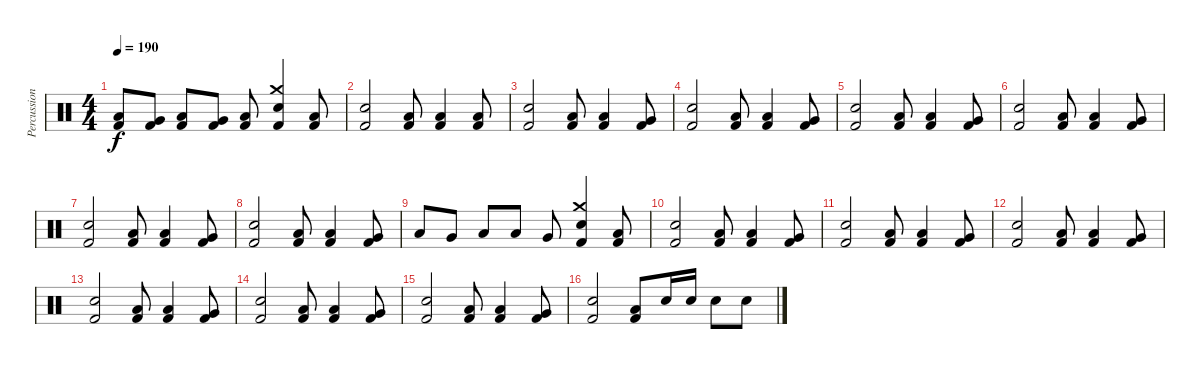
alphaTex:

\track ("Percussion" "Percussion") {instrument percussion}
\staff {score}
\articulation defaults
\ts (4 4)
\tempo 190
\clef neutral
\ks c
("Low Floor Tom (hit)" "Kick (hit) 2").8{dy f} ("Very Low Tom (hit)" "Kick (hit) 2").8 ("Low Floor Tom (hit)" "Kick (hit) 2").8 ("Very Low Tom (hit)" "Kick (hit) 2").8 ("Low Floor Tom (hit)" "Kick (hit) 2").8 ("Crash medium (hit)" "Snare (hit) 2" "Kick (hit) 2").4 ("Low Tom (hit)" "Kick (hit) 2").8 |
("Snare (hit) 2" "Kick (hit) 2").2 ("Low Floor Tom (hit)" "Kick (hit) 2").8 ("Low Floor Tom (hit)" "Kick (hit) 2").4 ("Low Floor Tom (hit)" "Kick (hit) 2").8 |
("Snare (hit) 2" "Kick (hit) 2").2 ("Low Floor Tom (hit)" "Kick (hit) 2").8 ("Low Floor Tom (hit)" "Kick (hit) 2").4 ("Very Low Tom (hit)" "Kick (hit) 2").8 |
("Snare (hit) 2" "Kick (hit) 2").2 ("Low Floor Tom (hit)" "Kick (hit) 2").8 ("Low Floor Tom (hit)" "Kick (hit) 2").4 ("Very Low Tom (hit)" "Kick (hit) 2").8 |
("Snare (hit) 2" "Kick (hit) 2").2 ("Low Floor Tom (hit)" "Kick (hit) 2").8 ("Low Floor Tom (hit)" "Kick (hit) 2").4 ("Very Low Tom (hit)" "Kick (hit) 2").8 |
("Snare (hit) 2" "Kick (hit) 2").2 ("Low Floor Tom (hit)" "Kick (hit) 2").8 ("Low Floor Tom (hit)" "Kick (hit) 2").4 ("Very Low Tom (hit)" "Kick (hit) 2").8 |
("Snare (hit) 2" "Kick (hit) 2").2 ("Low Floor Tom (hit)" "Kick (hit) 2").8 ("Low Floor Tom (hit)" "Kick (hit) 2").4 ("Very Low Tom (hit)" "Kick (hit) 2").8 |
("Snare (hit) 2" "Kick (hit) 2").2 ("Low Floor Tom (hit)" "Kick (hit) 2").8 ("Low Floor Tom (hit)" "Kick (hit) 2").4 ("Very Low Tom (hit)" "Kick (hit) 2").8 |
"Low Tom (hit)".8 "Very Low Tom (hit)".8 "Low Tom (hit)".8 "Low Floor Tom (hit)".8 "Very Low Tom (hit)".8 ("Crash medium (hit)" "Snare (hit) 2" "Kick (hit) 2").4 ("Low Floor Tom (hit)" "Kick (hit) 2").8 |
("Snare (hit) 2" "Kick (hit) 2").2 ("Low Floor Tom (hit)" "Kick (hit) 2").8 ("Low Floor Tom (hit)" "Kick (hit) 2").4 ("Very Low Tom (hit)" "Kick (hit) 2").8 |
("Snare (hit) 2" "Kick (hit) 2").2 ("Low Floor Tom (hit)" "Kick (hit) 2").8 ("Low Floor Tom (hit)" "Kick (hit) 2").4 ("Very Low Tom (hit)" "Kick (hit) 2").8 |
("Snare (hit) 2" "Kick (hit) 2").2 ("Low Floor Tom (hit)" "Kick (hit) 2").8 ("Low Floor Tom (hit)" "Kick (hit) 2").4 ("Very Low Tom (hit)" "Kick (hit) 2").8 |
("Snare (hit) 2" "Kick (hit) 2").2 ("Low Floor Tom (hit)" "Kick (hit) 2").8 ("Low Floor Tom (hit)" "Kick (hit) 2").4 ("Very Low Tom (hit)" "Kick (hit) 2").8 |
("Snare (hit) 2" "Kick (hit) 2").2 ("Low Floor Tom (hit)" "Kick (hit) 2").8 ("Low Floor Tom (hit)" "Kick (hit) 2").4 ("Very Low Tom (hit)" "Kick (hit) 2").8 |
("Snare (hit) 2" "Kick (hit) 2").2 ("Low Floor Tom (hit)" "Kick (hit) 2").8 ("Low Floor Tom (hit)" "Kick (hit) 2").4 ("Very Low Tom (hit)" "Kick (hit) 2").8 |
("Snare (hit) 2" "Kick (hit) 2").2 ("Low Floor Tom (hit)" "Kick (hit) 2").8 "Snare (hit) 2".16 "Snare (hit) 2".16 "Snare (hit) 2".8 "Snare (hit) 2".8
